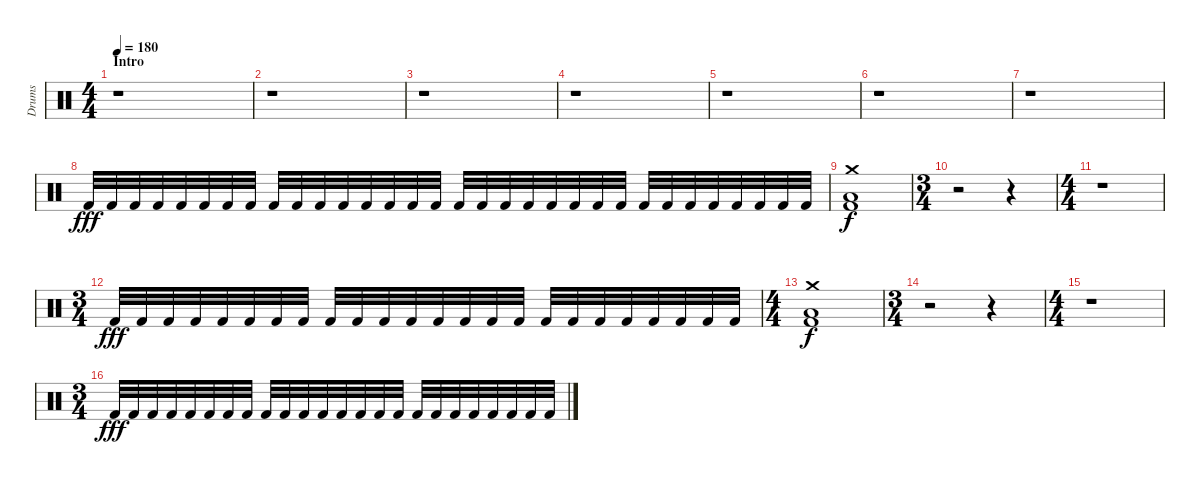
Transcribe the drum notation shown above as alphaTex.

\track ("Drums" "Drums") {instrument percussion}
\staff {score}
\articulation defaults
\ts (4 4)
\section ("" "Intro")
\tempo 180
\tempo 120
\tempo 180
\clef neutral
\ks c
r.1{dy fff} |
r.1 |
r.1 |
r.1 |
r.1 |
r.1 |
r.1 |
"Kick (hit) 2".32{volume 16} "Kick (hit) 2".32 "Kick (hit) 2".32 "Kick (hit) 2".32 "Kick (hit) 2".32 "Kick (hit) 2".32 "Kick (hit) 2".32 "Kick (hit) 2".32 "Kick (hit) 2".32 "Kick (hit) 2".32 "Kick (hit) 2".32 "Kick (hit) 2".32 "Kick (hit) 2".32 "Kick (hit) 2".32 "Kick (hit) 2".32 "Kick (hit) 2".32 "Kick (hit) 2".32 "Kick (hit) 2".32 "Kick (hit) 2".32 "Kick (hit) 2".32 "Kick (hit) 2".32 "Kick (hit) 2".32 "Kick (hit) 2".32 "Kick (hit) 2".32 "Kick (hit) 2".32 "Kick (hit) 2".32 "Kick (hit) 2".32 "Kick (hit) 2".32 "Kick (hit) 2".32 "Kick (hit) 2".32 "Kick (hit) 2".32 "Kick (hit) 2".32 |
("Crash medium (hit)" "Low Floor Tom (hit)" "Kick (hit) 2").1{dy f} |
\ts (3 4)
r.2 r.4 |
\ts (4 4)
r.1 |
\ts (3 4)
"Kick (hit) 2".32{dy fff volume 16} "Kick (hit) 2".32 "Kick (hit) 2".32 "Kick (hit) 2".32 "Kick (hit) 2".32 "Kick (hit) 2".32 "Kick (hit) 2".32 "Kick (hit) 2".32 "Kick (hit) 2".32 "Kick (hit) 2".32 "Kick (hit) 2".32 "Kick (hit) 2".32 "Kick (hit) 2".32 "Kick (hit) 2".32 "Kick (hit) 2".32 "Kick (hit) 2".32 "Kick (hit) 2".32 "Kick (hit) 2".32 "Kick (hit) 2".32 "Kick (hit) 2".32 "Kick (hit) 2".32 "Kick (hit) 2".32 "Kick (hit) 2".32 "Kick (hit) 2".32 |
\ts (4 4)
("Crash medium (hit)" "Low Floor Tom (hit)" "Kick (hit) 2").1{dy f} |
\ts (3 4)
r.2 r.4 |
\ts (4 4)
r.1 |
\ts (3 4)
"Kick (hit) 2".32{dy fff volume 16} "Kick (hit) 2".32 "Kick (hit) 2".32 "Kick (hit) 2".32 "Kick (hit) 2".32 "Kick (hit) 2".32 "Kick (hit) 2".32 "Kick (hit) 2".32 "Kick (hit) 2".32 "Kick (hit) 2".32 "Kick (hit) 2".32 "Kick (hit) 2".32 "Kick (hit) 2".32 "Kick (hit) 2".32 "Kick (hit) 2".32 "Kick (hit) 2".32 "Kick (hit) 2".32 "Kick (hit) 2".32 "Kick (hit) 2".32 "Kick (hit) 2".32 "Kick (hit) 2".32 "Kick (hit) 2".32 "Kick (hit) 2".32 "Kick (hit) 2".32
